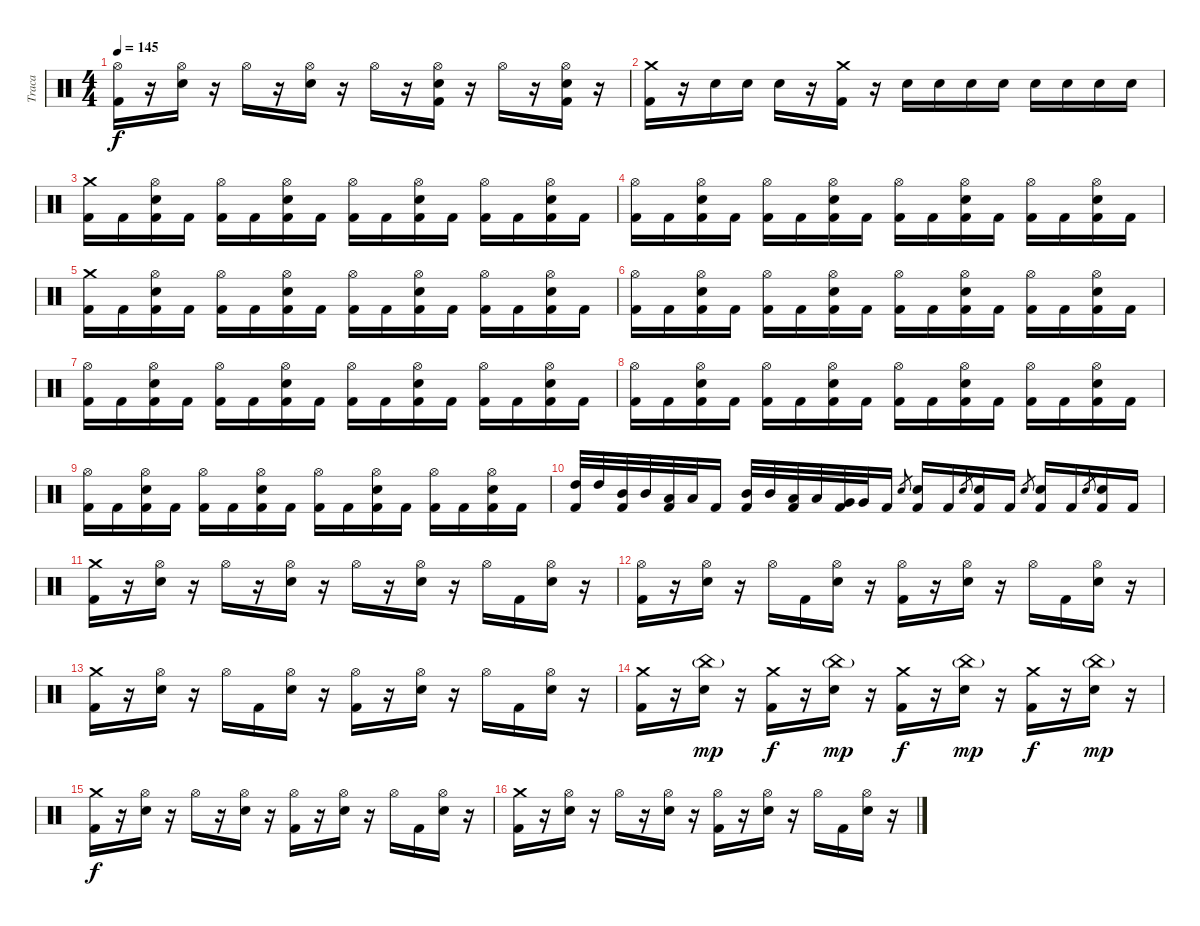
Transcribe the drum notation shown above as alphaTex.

\track ("Traca" "Traca") {instrument percussion}
\staff {score}
\articulation defaults
\ts (4 4)
\tempo 145
\clef neutral
\ks c
("Hi-Hat (open)" "Kick (hit) 2").16{dy f} r.16 ("Hi-Hat (open)" "Snare (hit) 2").16 r.16 "Hi-Hat (open)".16 r.16 ("Hi-Hat (open)" "Snare (hit) 2").16 r.16 "Hi-Hat (open)".16 r.16 ("Hi-Hat (open)" "Snare (hit) 2" "Kick (hit) 2").16 r.16 "Hi-Hat (open)".16 r.16 ("Hi-Hat (open)" "Snare (hit) 2" "Kick (hit) 2").16 r.16 |
("Crash medium (hit)" "Kick (hit) 2").16 r.16 "Snare (hit) 2".16 "Snare (hit) 2".16 "Snare (hit) 2".16 r.16 ("Crash medium (hit)" "Kick (hit) 2").16 r.16 "Snare (hit) 2".16 "Snare (hit) 2".16 "Snare (hit) 2".16 "Snare (hit) 2".16 "Snare (hit) 2".16 "Snare (hit) 2".16 "Snare (hit) 2".16 "Snare (hit) 2".16 |
("Crash medium (hit)" "Kick (hit) 2").16 "Kick (hit) 2".16 ("Hi-Hat (open)" "Snare (hit) 2" "Kick (hit) 2").16 "Kick (hit) 2".16 ("Hi-Hat (open)" "Kick (hit) 2").16 "Kick (hit) 2".16 ("Hi-Hat (open)" "Snare (hit) 2" "Kick (hit) 2").16 "Kick (hit) 2".16 ("Hi-Hat (open)" "Kick (hit) 2").16 "Kick (hit) 2".16 ("Hi-Hat (open)" "Snare (hit) 2" "Kick (hit) 2").16 "Kick (hit) 2".16 ("Hi-Hat (open)" "Kick (hit) 2").16 "Kick (hit) 2".16 ("Hi-Hat (open)" "Snare (hit) 2" "Kick (hit) 2").16 "Kick (hit) 2".16 |
("Hi-Hat (open)" "Kick (hit) 2").16 "Kick (hit) 2".16 ("Hi-Hat (open)" "Snare (hit) 2" "Kick (hit) 2").16 "Kick (hit) 2".16 ("Hi-Hat (open)" "Kick (hit) 2").16 "Kick (hit) 2".16 ("Hi-Hat (open)" "Snare (hit) 2" "Kick (hit) 2").16 "Kick (hit) 2".16 ("Hi-Hat (open)" "Kick (hit) 2").16 "Kick (hit) 2".16 ("Hi-Hat (open)" "Snare (hit) 2" "Kick (hit) 2").16 "Kick (hit) 2".16 ("Hi-Hat (open)" "Kick (hit) 2").16 "Kick (hit) 2".16 ("Hi-Hat (open)" "Snare (hit) 2" "Kick (hit) 2").16 "Kick (hit) 2".16 |
("Crash medium (hit)" "Kick (hit) 2").16 "Kick (hit) 2".16 ("Hi-Hat (open)" "Snare (hit) 2" "Kick (hit) 2").16 "Kick (hit) 2".16 ("Hi-Hat (open)" "Kick (hit) 2").16 "Kick (hit) 2".16 ("Hi-Hat (open)" "Snare (hit) 2" "Kick (hit) 2").16 "Kick (hit) 2".16 ("Hi-Hat (open)" "Kick (hit) 2").16 "Kick (hit) 2".16 ("Hi-Hat (open)" "Snare (hit) 2" "Kick (hit) 2").16 "Kick (hit) 2".16 ("Hi-Hat (open)" "Kick (hit) 2").16 "Kick (hit) 2".16 ("Hi-Hat (open)" "Snare (hit) 2" "Kick (hit) 2").16 "Kick (hit) 2".16 |
("Hi-Hat (open)" "Kick (hit) 2").16 "Kick (hit) 2".16 ("Hi-Hat (open)" "Snare (hit) 2" "Kick (hit) 2").16 "Kick (hit) 2".16 ("Hi-Hat (open)" "Kick (hit) 2").16 "Kick (hit) 2".16 ("Hi-Hat (open)" "Snare (hit) 2" "Kick (hit) 2").16 "Kick (hit) 2".16 ("Hi-Hat (open)" "Kick (hit) 2").16 "Kick (hit) 2".16 ("Hi-Hat (open)" "Snare (hit) 2" "Kick (hit) 2").16 "Kick (hit) 2".16 ("Hi-Hat (open)" "Kick (hit) 2").16 "Kick (hit) 2".16 ("Hi-Hat (open)" "Snare (hit) 2" "Kick (hit) 2").16 "Kick (hit) 2".16 |
("Hi-Hat (open)" "Kick (hit) 2").16 "Kick (hit) 2".16 ("Hi-Hat (open)" "Snare (hit) 2" "Kick (hit) 2").16 "Kick (hit) 2".16 ("Hi-Hat (open)" "Kick (hit) 2").16 "Kick (hit) 2".16 ("Hi-Hat (open)" "Snare (hit) 2" "Kick (hit) 2").16 "Kick (hit) 2".16 ("Hi-Hat (open)" "Kick (hit) 2").16 "Kick (hit) 2".16 ("Hi-Hat (open)" "Snare (hit) 2" "Kick (hit) 2").16 "Kick (hit) 2".16 ("Hi-Hat (open)" "Kick (hit) 2").16 "Kick (hit) 2".16 ("Hi-Hat (open)" "Snare (hit) 2" "Kick (hit) 2").16 "Kick (hit) 2".16 |
("Hi-Hat (open)" "Kick (hit) 2").16 "Kick (hit) 2".16 ("Hi-Hat (open)" "Snare (hit) 2" "Kick (hit) 2").16 "Kick (hit) 2".16 ("Hi-Hat (open)" "Kick (hit) 2").16 "Kick (hit) 2".16 ("Hi-Hat (open)" "Snare (hit) 2" "Kick (hit) 2").16 "Kick (hit) 2".16 ("Hi-Hat (open)" "Kick (hit) 2").16 "Kick (hit) 2".16 ("Hi-Hat (open)" "Snare (hit) 2" "Kick (hit) 2").16 "Kick (hit) 2".16 ("Hi-Hat (open)" "Kick (hit) 2").16 "Kick (hit) 2".16 ("Hi-Hat (open)" "Snare (hit) 2" "Kick (hit) 2").16 "Kick (hit) 2".16 |
("Hi-Hat (open)" "Kick (hit) 2").16 "Kick (hit) 2".16 ("Hi-Hat (open)" "Snare (hit) 2" "Kick (hit) 2").16 "Kick (hit) 2".16 ("Hi-Hat (open)" "Kick (hit) 2").16 "Kick (hit) 2".16 ("Hi-Hat (open)" "Snare (hit) 2" "Kick (hit) 2").16 "Kick (hit) 2".16 ("Hi-Hat (open)" "Kick (hit) 2").16 "Kick (hit) 2".16 ("Hi-Hat (open)" "Snare (hit) 2" "Kick (hit) 2").16 "Kick (hit) 2".16 ("Hi-Hat (open)" "Kick (hit) 2").16 "Kick (hit) 2".16 ("Hi-Hat (open)" "Snare (hit) 2" "Kick (hit) 2").16 "Kick (hit) 2".16 |
("High Tom (hit)" "Kick (hit) 2").32 "High Tom (hit)".32 ("Mid Tom (hit)" "Kick (hit) 2").32 "Mid Tom (hit)".32 ("Low Tom (hit)" "Kick (hit) 2").32 "Low Tom (hit)".32 "Kick (hit) 2".16 ("Mid Tom (hit)" "Kick (hit) 2").32 "Mid Tom (hit)".32 ("Low Tom (hit)" "Kick (hit) 2").32 "Low Tom (hit)".32 ("Very Low Tom (hit)" "Kick (hit) 2").32 "Very Low Tom (hit)".32 "Kick (hit) 2".16 "Snare (hit) 2".8{gr} ("Snare (hit) 2" "Kick (hit) 2").16 "Kick (hit) 2".16 "Snare (hit) 2".8{gr} ("Snare (hit) 2" "Kick (hit) 2").16 "Kick (hit) 2".16 "Snare (hit) 2".8{gr} ("Snare (hit) 2" "Kick (hit) 2").16 "Kick (hit) 2".16 "Snare (hit) 2".8{gr} ("Snare (hit) 2" "Kick (hit) 2").16 "Kick (hit) 2".16 |
("Crash medium (hit)" "Kick (hit) 2").16 r.16 ("Hi-Hat (open)" "Snare (hit) 2").16 r.16 "Hi-Hat (open)".16 r.16 ("Hi-Hat (open)" "Snare (hit) 2").16 r.16 "Hi-Hat (open)".16 r.16 ("Hi-Hat (open)" "Snare (hit) 2").16 r.16 "Hi-Hat (open)".16 "Kick (hit) 2".16 ("Hi-Hat (open)" "Snare (hit) 2").16 r.16 |
("Hi-Hat (open)" "Kick (hit) 2").16 r.16 ("Hi-Hat (open)" "Snare (hit) 2").16 r.16 "Hi-Hat (open)".16 "Kick (hit) 2".16 ("Hi-Hat (open)" "Snare (hit) 2").16 r.16 ("Hi-Hat (open)" "Kick (hit) 2").16 r.16 ("Hi-Hat (open)" "Snare (hit) 2").16 r.16 "Hi-Hat (open)".16 "Kick (hit) 2".16 ("Hi-Hat (open)" "Snare (hit) 2").16 r.16 |
("Crash medium (hit)" "Kick (hit) 2").16 r.16 ("Hi-Hat (open)" "Snare (hit) 2").16 r.16 "Hi-Hat (open)".16 "Kick (hit) 2".16 ("Hi-Hat (open)" "Snare (hit) 2").16 r.16 ("Hi-Hat (open)" "Kick (hit) 2").16 r.16 ("Hi-Hat (open)" "Snare (hit) 2").16 r.16 "Hi-Hat (open)".16 "Kick (hit) 2".16 ("Hi-Hat (open)" "Snare (hit) 2").16 r.16 |
("Crash medium (hit)" "Kick (hit) 2").16 r.16 ("China (hit)"{g} "Snare (hit) 2").16{dy mp} r.16 ("Crash medium (hit)" "Kick (hit) 2").16{dy f} r.16 ("China (hit)"{g} "Snare (hit) 2").16{dy mp} r.16 ("Crash medium (hit)" "Kick (hit) 2").16{dy f} r.16 ("China (hit)"{g} "Snare (hit) 2").16{dy mp} r.16 ("Crash medium (hit)" "Kick (hit) 2").16{dy f} r.16 ("China (hit)"{g} "Snare (hit) 2").16{dy mp} r.16 |
("Crash medium (hit)" "Kick (hit) 2").16{dy f} r.16 ("Hi-Hat (open)" "Snare (hit) 2").16 r.16 "Hi-Hat (open)".16 r.16 ("Hi-Hat (open)" "Snare (hit) 2").16 r.16 ("Hi-Hat (open)" "Kick (hit) 2").16 r.16 ("Hi-Hat (open)" "Snare (hit) 2").16 r.16 "Hi-Hat (open)".16 "Kick (hit) 2".16 ("Hi-Hat (open)" "Snare (hit) 2").16 r.16 |
("Crash medium (hit)" "Kick (hit) 2").16 r.16 ("Hi-Hat (open)" "Snare (hit) 2").16 r.16 "Hi-Hat (open)".16 r.16 ("Hi-Hat (open)" "Snare (hit) 2").16 r.16 ("Hi-Hat (open)" "Kick (hit) 2").16 r.16 ("Hi-Hat (open)" "Snare (hit) 2").16 r.16 "Hi-Hat (open)".16 "Kick (hit) 2".16 ("Hi-Hat (open)" "Snare (hit) 2").16 r.16
